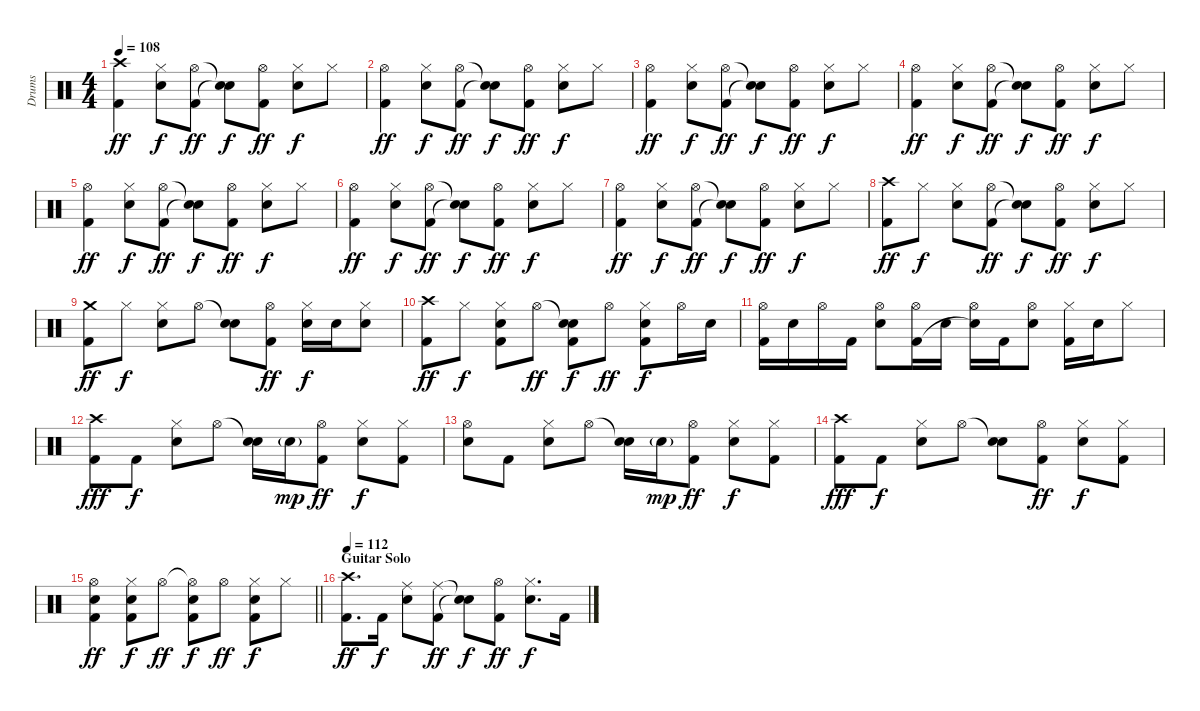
\track ("Drums" "Drums") {instrument percussion}
\staff {score}
\articulation defaults
\ts (4 4)
\tempo 108
\clef neutral
\ks c
("Crash high (hit)" "Kick (hit) 2").4{dy ff} ("Hi-Hat (closed)" "Electric Snare (hit)").8{dy f} ("Hi-Hat (open)" "Kick (hit) 2").8{dy ff} ("Snare (hit)"{t} "Snare (hit)"{t}).8{dy f} ("Hi-Hat (open)" "Kick (hit) 2").8{dy ff} ("Hi-Hat (closed)" "Electric Snare (hit)").8{dy f} "Hi-Hat (closed)".8 |
("Hi-Hat (open)" "Kick (hit) 2").4{dy ff} ("Hi-Hat (closed)" "Electric Snare (hit)").8{dy f} ("Hi-Hat (open)" "Kick (hit) 2").8{dy ff} ("Snare (hit)"{t} "Snare (hit)"{t}).8{dy f} ("Hi-Hat (open)" "Kick (hit) 2").8{dy ff} ("Hi-Hat (closed)" "Electric Snare (hit)").8{dy f} "Hi-Hat (closed)".8 |
("Hi-Hat (open)" "Kick (hit) 2").4{dy ff} ("Hi-Hat (closed)" "Electric Snare (hit)").8{dy f} ("Hi-Hat (open)" "Kick (hit) 2").8{dy ff} ("Snare (hit)"{t} "Snare (hit)"{t}).8{dy f} ("Hi-Hat (open)" "Kick (hit) 2").8{dy ff} ("Hi-Hat (closed)" "Electric Snare (hit)").8{dy f} "Hi-Hat (closed)".8 |
("Hi-Hat (open)" "Kick (hit) 2").4{dy ff} ("Hi-Hat (closed)" "Electric Snare (hit)").8{dy f} ("Hi-Hat (open)" "Kick (hit) 2").8{dy ff} ("Snare (hit)"{t} "Snare (hit)"{t}).8{dy f} ("Hi-Hat (open)" "Kick (hit) 2").8{dy ff} ("Hi-Hat (closed)" "Electric Snare (hit)").8{dy f} "Hi-Hat (closed)".8 |
("Hi-Hat (open)" "Kick (hit) 2").4{dy ff} ("Hi-Hat (closed)" "Electric Snare (hit)").8{dy f} ("Hi-Hat (open)" "Kick (hit) 2").8{dy ff} ("Snare (hit)"{t} "Snare (hit)"{t}).8{dy f} ("Hi-Hat (open)" "Kick (hit) 2").8{dy ff} ("Hi-Hat (closed)" "Electric Snare (hit)").8{dy f} "Hi-Hat (closed)".8 |
("Hi-Hat (open)" "Kick (hit) 2").4{dy ff} ("Hi-Hat (closed)" "Electric Snare (hit)").8{dy f} ("Hi-Hat (open)" "Kick (hit) 2").8{dy ff} ("Snare (hit)"{t} "Snare (hit)"{t}).8{dy f} ("Hi-Hat (open)" "Kick (hit) 2").8{dy ff} ("Hi-Hat (closed)" "Electric Snare (hit)").8{dy f} "Hi-Hat (closed)".8 |
("Hi-Hat (open)" "Kick (hit) 2").4{dy ff} ("Hi-Hat (closed)" "Electric Snare (hit)").8{dy f} ("Hi-Hat (open)" "Kick (hit) 2").8{dy ff} ("Snare (hit)"{t} "Snare (hit)"{t}).8{dy f} ("Hi-Hat (open)" "Kick (hit) 2").8{dy ff} ("Hi-Hat (closed)" "Electric Snare (hit)").8{dy f} "Hi-Hat (closed)".8 |
("Crash high (hit)" "Kick (hit) 2").8{dy ff} "Hi-Hat (closed)".8{dy f} ("Hi-Hat (closed)" "Electric Snare (hit)").8 ("Hi-Hat (open)" "Kick (hit) 2").8{dy ff} ("Snare (hit)"{t} "Snare (hit)"{t}).8{dy f} ("Hi-Hat (open)" "Kick (hit) 2").8{dy ff} ("Hi-Hat (closed)" "Electric Snare (hit)").8{dy f} "Hi-Hat (closed)".8 |
("Crash medium (hit)" "Kick (hit) 2").8{dy ff} "Hi-Hat (closed)".8{dy f} ("Hi-Hat (closed)" "Electric Snare (hit)").8 "Hi-Hat (open)".8 ("Snare (hit)"{t} "Electric Snare (hit)").8 ("Hi-Hat (open)" "Kick (hit) 2").8{dy ff} ("Hi-Hat (closed)" "Electric Snare (hit)").16{dy f} "Electric Snare (hit)".16 ("Hi-Hat (closed)" "Electric Snare (hit)").8 |
("Crash high (hit)" "Kick (hit) 2").8{dy ff} "Hi-Hat (closed)".8{dy f} ("Hi-Hat (closed)" "Electric Snare (hit)" "Kick (hit) 2").8 "Hi-Hat (open)".8{dy ff} ("Snare (hit)"{t} "Electric Snare (hit)" "Kick (hit) 2").8{dy f} "Hi-Hat (open)".8{dy ff} ("Hi-Hat (closed)" "Electric Snare (hit)" "Kick (hit) 2").8{dy f} "Hi-Hat (open)".16 "Electric Snare (hit)".16 |
("Hi-Hat (open)" "Kick (hit) 2").16 "Electric Snare (hit)".16 "Hi-Hat (open)".16 "Kick (hit) 2".16 ("Hi-Hat (open)" "Electric Snare (hit)").8 ("Hi-Hat (open)" "Kick (hit) 2").16 "Electric Snare (hit)".16 ("Hi-Hat (open)" "Snare (hit)"{t}).16 "Kick (hit) 2".16 ("Hi-Hat (open)" "Electric Snare (hit)").8 ("Hi-Hat (closed)" "Kick (hit) 2").16 "Electric Snare (hit)".16 "Hi-Hat (closed)".8 |
("Crash high (hit)" "Kick (hit) 2").8{dy fff} "Kick (hit) 2".8{dy f} ("Hi-Hat (closed)" "Electric Snare (hit)").8 "Hi-Hat (open)".8 ("Snare (hit)"{t} "Electric Snare (hit)").16 "Electric Snare (hit)"{g}.16{dy mp} ("Hi-Hat (open)" "Kick (hit) 2").8{dy ff} ("Hi-Hat (closed)" "Electric Snare (hit)").8{dy f} ("Hi-Hat (closed)" "Kick (hit) 2").8 |
("Hi-Hat (open)" "Electric Snare (hit)").8 "Kick (hit) 2".8 ("Hi-Hat (closed)" "Electric Snare (hit)").8 "Hi-Hat (open)".8 ("Snare (hit)"{t} "Electric Snare (hit)").16 "Electric Snare (hit)"{g}.16{dy mp} ("Hi-Hat (open)" "Kick (hit) 2").8{dy ff} ("Hi-Hat (closed)" "Electric Snare (hit)").8{dy f} ("Hi-Hat (closed)" "Kick (hit) 2").8 |
("Crash high (hit)" "Kick (hit) 2").8{dy fff} "Kick (hit) 2".8{dy f} ("Hi-Hat (closed)" "Electric Snare (hit)").8 "Hi-Hat (open)".8 ("Snare (hit)"{t} "Electric Snare (hit)").8 ("Hi-Hat (open)" "Kick (hit) 2").8{dy ff} ("Hi-Hat (closed)" "Electric Snare (hit)").8{dy f} ("Hi-Hat (closed)" "Kick (hit) 2").8 |
\barLineRight lightlight
("Hi-Hat (open)" "Electric Snare (hit)" "Kick (hit) 2").4{dy ff} ("Hi-Hat (closed)" "Electric Snare (hit)" "Kick (hit) 2").8{dy f} "Hi-Hat (open)".8{dy ff} ("Hi-Hat (open)"{t} "Electric Snare (hit)" "Kick (hit) 2").8{dy f} "Hi-Hat (open)".8{dy ff} ("Hi-Hat (closed)" "Electric Snare (hit)" "Kick (hit) 2").8{dy f} "Hi-Hat (closed)".8 |
\section ("" "Guitar Solo")
\tempo 112
("Crash high (hit)" "Kick (hit) 2").8{d dy ff} "Kick (hit) 2".16{dy f} ("Ride (middle)" "Electric Snare (hit)").8 ("Ride (middle)" "Kick (hit) 2").8{dy ff} ("Snare (hit)"{t} "Snare (hit)"{t}).8{dy f} ("Hi-Hat (open)" "Kick (hit) 2").8{dy ff} ("Hi-Hat (closed)" "Electric Snare (hit)").8{d dy f} "Kick (hit) 2".16
